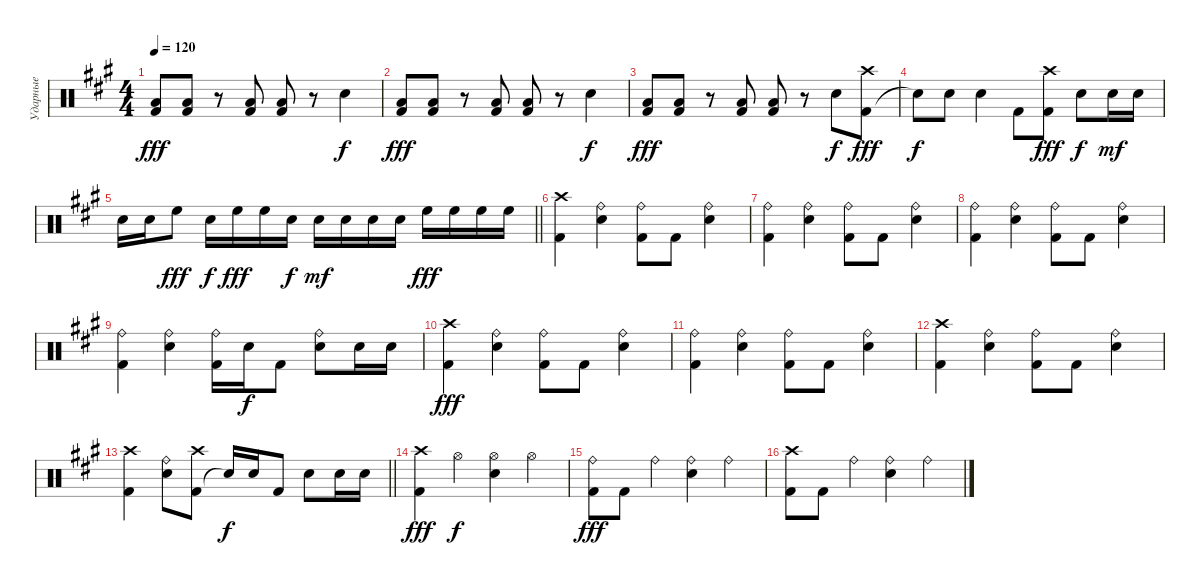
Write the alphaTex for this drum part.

\track ("Ударные" "Ударные") {instrument percussion}
\staff {score}
\articulation defaults
\ts (4 4)
\tempo 120
\clef neutral
\ks a
("Kick (hit) 2" "Low Floor Tom (hit)").8{dy fff} ("Kick (hit) 2" "Low Floor Tom (hit)").8 r.8 ("Kick (hit) 2" "Low Floor Tom (hit)").8 ("Kick (hit) 2" "Low Floor Tom (hit)").8 r.8 "Snare (hit) 2".4{dy f} |
("Kick (hit) 2" "Low Floor Tom (hit)").8{dy fff} ("Kick (hit) 2" "Low Floor Tom (hit)").8 r.8 ("Kick (hit) 2" "Low Floor Tom (hit)").8 ("Kick (hit) 2" "Low Floor Tom (hit)").8 r.8 "Snare (hit) 2".4{dy f} |
("Kick (hit) 2" "Low Floor Tom (hit)").8{dy fff} ("Kick (hit) 2" "Low Floor Tom (hit)").8 r.8 ("Kick (hit) 2" "Low Floor Tom (hit)").8 ("Kick (hit) 2" "Low Floor Tom (hit)").8 r.8 "Snare (hit) 2".8{dy f} ("Kick (hit) 2" "Crash high (hit)").8{dy fff} |
"Snare (hit)"{t}.8{dy f} "Snare (hit) 2".8 "Snare (hit) 2".4 "Kick (hit) 2".8 ("Kick (hit) 2" "Crash high (hit)").8{dy fff} "Snare (hit) 2".8{dy f} "Snare (hit) 2".16{dy mf} "Snare (hit) 2".16 |
\barLineRight lightlight "Snare (hit) 2".16 "Snare (hit) 2".16 "High Floor Tom (hit)".8{dy fff} "Snare (hit) 2".16{dy f} "High Floor Tom (hit)".16{dy fff} "High Floor Tom (hit)".16 "Snare (hit) 2".16{dy f} "Snare (hit) 2".16{dy mf} "Snare (hit) 2".16 "Snare (hit) 2".16 "Snare (hit) 2".16 "High Floor Tom (hit)".16{dy fff} "High Floor Tom (hit)".16 "High Floor Tom (hit)".16 "High Floor Tom (hit)".16
|
("Kick (hit) 2" "Crash high (hit)").4 ("Snare (hit) 2" "Ride (bell)").4 ("Kick (hit) 2" "Ride (bell)").8 "Kick (hit) 2".8 ("Snare (hit) 2" "Ride (bell)").4 |
("Kick (hit) 2" "Ride (bell)").4 ("Snare (hit) 2" "Ride (bell)").4 ("Kick (hit) 2" "Ride (bell)").8 "Kick (hit) 2".8 ("Snare (hit) 2" "Ride (bell)").4 |
("Kick (hit) 2" "Ride (bell)").4 ("Snare (hit) 2" "Ride (bell)").4 ("Kick (hit) 2" "Ride (bell)").8 "Kick (hit) 2".8 ("Snare (hit) 2" "Ride (bell)").4 |
("Kick (hit) 2" "Ride (bell)").4 ("Snare (hit) 2" "Ride (bell)").4 ("Kick (hit) 2" "Ride (bell)").16 "Snare (hit) 2".16{dy f} "Kick (hit) 2".8 ("Snare (hit) 2" "Ride (bell)").8 "Snare (hit) 2".16 "Snare (hit) 2".16 |
("Kick (hit) 2" "Crash high (hit)").4{dy fff} ("Snare (hit) 2" "Ride (bell)").4 ("Kick (hit) 2" "Ride (bell)").8 "Kick (hit) 2".8 ("Snare (hit) 2" "Ride (bell)").4 |
("Kick (hit) 2" "Ride (bell)").4 ("Snare (hit) 2" "Ride (bell)").4 ("Kick (hit) 2" "Ride (bell)").8 "Kick (hit) 2".8 ("Snare (hit) 2" "Ride (bell)").4 |
("Kick (hit) 2" "Crash high (hit)").4 ("Snare (hit) 2" "Ride (bell)").4 ("Kick (hit) 2" "Ride (bell)").8 "Kick (hit) 2".8 ("Snare (hit) 2" "Ride (bell)").4 |
\barLineRight lightlight
("Kick (hit) 2" "Crash high (hit)").4 ("Snare (hit) 2" "Ride (bell)").8 ("Kick (hit) 2" "Crash high (hit)").8 "Snare (hit)"{t}.16{dy f} "Snare (hit) 2".16 "Kick (hit) 2".8 "Snare (hit) 2".8 "Snare (hit) 2".16 "Snare (hit) 2".16 |
("Kick (hit) 2" "Crash high (hit)").4{dy fff} "Hi-Hat (open)".4{dy f} ("Snare (hit) 2" "Hi-Hat (open)").4 "Hi-Hat (open)".4 |
("Kick (hit) 2" "Ride (bell)").8{dy fff} "Kick (hit) 2".8 "Ride (bell)".4 ("Snare (hit) 2" "Ride (bell)").4 "Ride (bell)".4 |
("Kick (hit) 2" "Crash high (hit)").8 "Kick (hit) 2".8 "Ride (bell)".4 ("Snare (hit) 2" "Ride (bell)").4 "Ride (bell)".4
